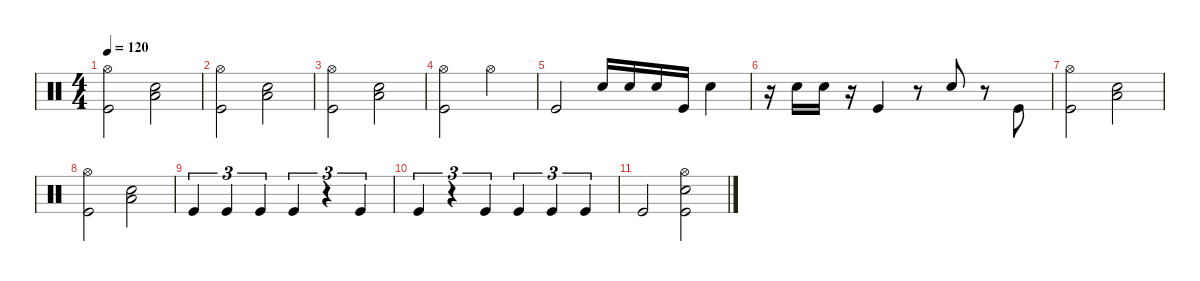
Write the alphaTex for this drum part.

\defaultSystemsLayout 4
\hideDynamics
\bracketExtendMode nobrackets
\singleTrackTrackNamePolicy hidden
\multiTrackTrackNamePolicy hidden
\otherSystemsTrackNameOrientation horizontal
\track ("Drums (Terry Bozzio)" "drm.") {instrument percussion}
\staff {score}
\articulation defaults
\ts (4 4)
\tempo 120
\clef neutral
\ks c
("Hi-Hat (open)" "Kick (hit)").2{dy fff beam Down} ("Low Floor Tom (hit)" "Snare (hit) 2").2{beam Down} |
("Hi-Hat (open)" "Kick (hit)").2{beam Down} ("Low Floor Tom (hit)" "Snare (hit) 2").2{beam Down} |
("Hi-Hat (open)" "Kick (hit)").2{beam Down} ("Low Floor Tom (hit)" "Snare (hit) 2").2{beam Down} |
("Hi-Hat (open)" "Kick (hit)").2{beam Down} "Hi-Hat (open)".2{beam Down} |
"Kick (hit)".2{beam Up} "Snare (hit) 2".16{beam Up} "Snare (hit) 2".16{beam Up} "Snare (hit) 2".16{beam Up} "Kick (hit)".16{beam Up} "Snare (hit) 2".4{beam Down} |
r.16{beam Down} "Snare (hit) 2".16{beam Down} "Snare (hit) 2".16{beam Down} r.16{beam Down} "Kick (hit)".4{beam Up} r.8{beam Up} "Snare (hit) 2".8{beam Down} r.8{beam Down} "Kick (hit)".8{beam Up} |
("Hi-Hat (open)" "Kick (hit)").2{beam Down} ("Low Floor Tom (hit)" "Snare (hit) 2").2{beam Down} |
("Hi-Hat (open)" "Kick (hit)").2{beam Down} ("Low Floor Tom (hit)" "Snare (hit) 2").2{beam Down} |
"Kick (hit)".4{tu (3 2) beam Up} "Kick (hit)".4{tu (3 2) beam Up} "Kick (hit)".4{tu (3 2) beam Up} "Kick (hit)".4{tu (3 2) beam Up} r.4{tu (3 2) beam Up} "Kick (hit)".4{tu (3 2) beam Up} |
"Kick (hit)".4{tu (3 2) beam Up} r.4{tu (3 2) beam Up} "Kick (hit)".4{tu (3 2) beam Up} "Kick (hit)".4{tu (3 2) beam Up} "Kick (hit)".4{tu (3 2) beam Up} "Kick (hit)".4{tu (3 2) beam Up} |
"Kick (hit)".2{beam Up} ("Hi-Hat (open)" "Snare (hit) 2" "Kick (hit)").2{beam Down}
